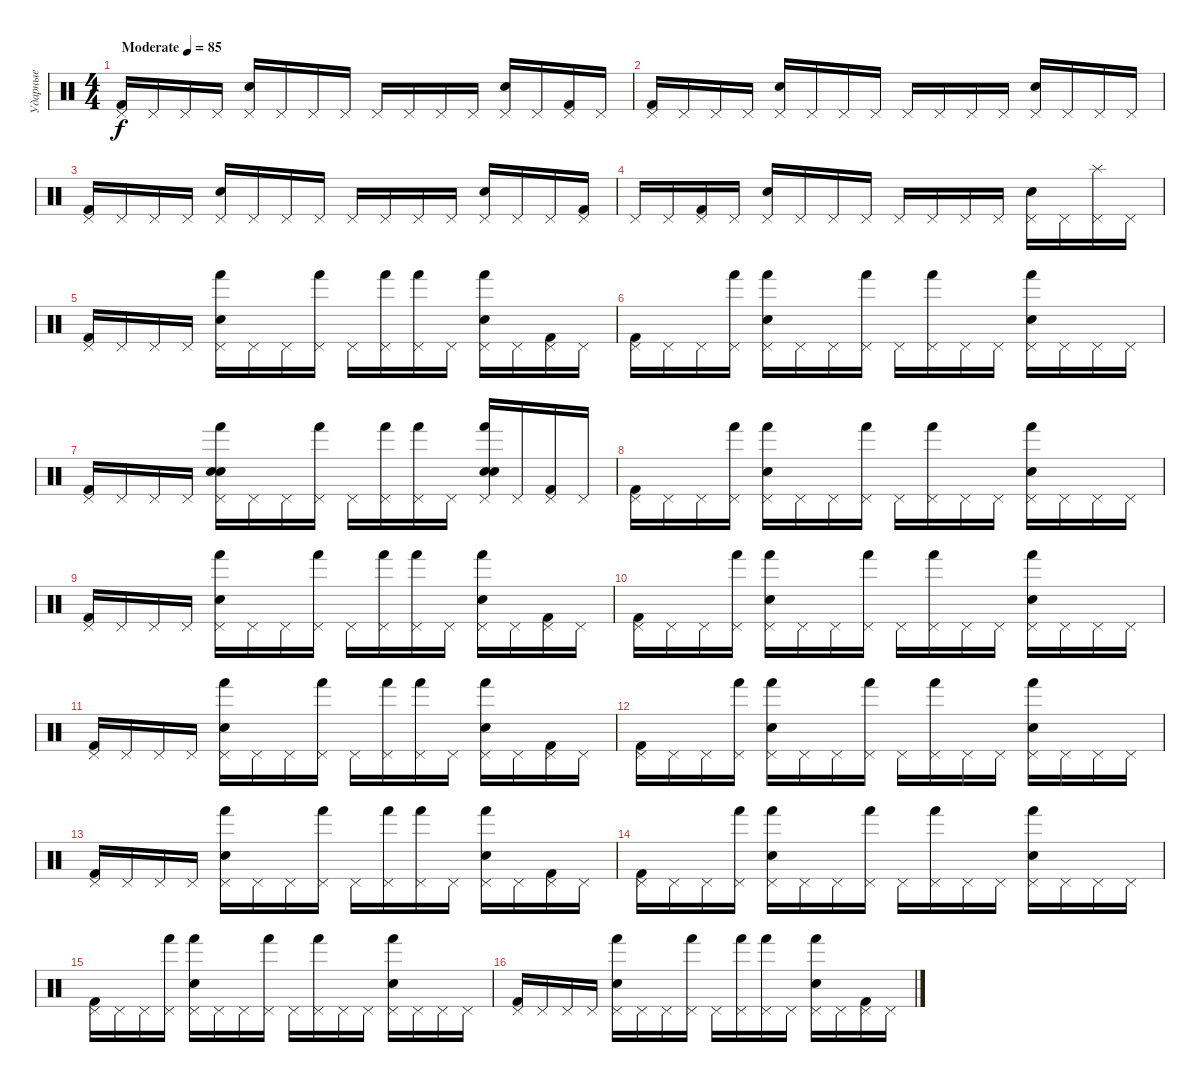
\track ("Ударные" "Ударные") {instrument percussion}
\staff {score}
\articulation defaults
\ts (4 4)
\tempo (85 "Moderate")
\clef neutral
\ks c
("Pedal Hi-Hat (hit)" "Kick (hit) 2").16{dy f} "Pedal Hi-Hat (hit)".16 "Pedal Hi-Hat (hit)".16 "Pedal Hi-Hat (hit)".16 ("Pedal Hi-Hat (hit)" "Electric Snare (hit)").16 "Pedal Hi-Hat (hit)".16 "Pedal Hi-Hat (hit)".16 "Pedal Hi-Hat (hit)".16 "Pedal Hi-Hat (hit)".16 "Pedal Hi-Hat (hit)".16 "Pedal Hi-Hat (hit)".16 "Pedal Hi-Hat (hit)".16 ("Pedal Hi-Hat (hit)" "Electric Snare (hit)").16 "Pedal Hi-Hat (hit)".16 ("Pedal Hi-Hat (hit)" "Kick (hit) 2").16 "Pedal Hi-Hat (hit)".16 |
("Pedal Hi-Hat (hit)" "Kick (hit) 2").16 "Pedal Hi-Hat (hit)".16 "Pedal Hi-Hat (hit)".16 "Pedal Hi-Hat (hit)".16 ("Pedal Hi-Hat (hit)" "Electric Snare (hit)").16 "Pedal Hi-Hat (hit)".16 "Pedal Hi-Hat (hit)".16 "Pedal Hi-Hat (hit)".16 "Pedal Hi-Hat (hit)".16 "Pedal Hi-Hat (hit)".16 "Pedal Hi-Hat (hit)".16 "Pedal Hi-Hat (hit)".16 ("Pedal Hi-Hat (hit)" "Electric Snare (hit)").16 "Pedal Hi-Hat (hit)".16 "Pedal Hi-Hat (hit)".16 "Pedal Hi-Hat (hit)".16 |
("Pedal Hi-Hat (hit)" "Kick (hit) 2").16 "Pedal Hi-Hat (hit)".16 "Pedal Hi-Hat (hit)".16 "Pedal Hi-Hat (hit)".16 ("Pedal Hi-Hat (hit)" "Electric Snare (hit)").16 "Pedal Hi-Hat (hit)".16 "Pedal Hi-Hat (hit)".16 "Pedal Hi-Hat (hit)".16 "Pedal Hi-Hat (hit)".16 "Pedal Hi-Hat (hit)".16 "Pedal Hi-Hat (hit)".16 "Pedal Hi-Hat (hit)".16 ("Pedal Hi-Hat (hit)" "Electric Snare (hit)").16 "Pedal Hi-Hat (hit)".16 "Pedal Hi-Hat (hit)".16 ("Pedal Hi-Hat (hit)" "Kick (hit) 2").16 |
"Pedal Hi-Hat (hit)".16 "Pedal Hi-Hat (hit)".16 ("Pedal Hi-Hat (hit)" "Kick (hit) 2").16 "Pedal Hi-Hat (hit)".16 ("Pedal Hi-Hat (hit)" "Electric Snare (hit)").16 "Pedal Hi-Hat (hit)".16 "Pedal Hi-Hat (hit)".16 "Pedal Hi-Hat (hit)".16 "Pedal Hi-Hat (hit)".16 "Pedal Hi-Hat (hit)".16 "Pedal Hi-Hat (hit)".16 "Pedal Hi-Hat (hit)".16 ("Pedal Hi-Hat (hit)" "Electric Snare (hit)").16 "Pedal Hi-Hat (hit)".16 ("Pedal Hi-Hat (hit)" "Splash (hit)").16 "Pedal Hi-Hat (hit)".16 |
("Pedal Hi-Hat (hit)" "Kick (hit) 2").16 "Pedal Hi-Hat (hit)".16 "Pedal Hi-Hat (hit)".16 "Pedal Hi-Hat (hit)".16 ("Pedal Hi-Hat (hit)" "Electric Snare (hit)" "Hand (hit)").16 "Pedal Hi-Hat (hit)".16 "Pedal Hi-Hat (hit)".16 ("Pedal Hi-Hat (hit)" "Hand (hit)").16 "Pedal Hi-Hat (hit)".16 ("Pedal Hi-Hat (hit)" "Hand (hit)").16 ("Pedal Hi-Hat (hit)" "Hand (hit)").16 "Pedal Hi-Hat (hit)".16 ("Pedal Hi-Hat (hit)" "Electric Snare (hit)" "Hand (hit)").16 "Pedal Hi-Hat (hit)".16 ("Pedal Hi-Hat (hit)" "Kick (hit) 2").16 "Pedal Hi-Hat (hit)".16 |
("Pedal Hi-Hat (hit)" "Kick (hit) 2").16 "Pedal Hi-Hat (hit)".16 "Pedal Hi-Hat (hit)".16 ("Pedal Hi-Hat (hit)" "Hand (hit)").16 ("Pedal Hi-Hat (hit)" "Electric Snare (hit)" "Hand (hit)").16 "Pedal Hi-Hat (hit)".16 "Pedal Hi-Hat (hit)".16 ("Pedal Hi-Hat (hit)" "Hand (hit)").16 "Pedal Hi-Hat (hit)".16 ("Pedal Hi-Hat (hit)" "Hand (hit)").16 "Pedal Hi-Hat (hit)".16 "Pedal Hi-Hat (hit)".16 ("Pedal Hi-Hat (hit)" "Electric Snare (hit)" "Hand (hit)").16 "Pedal Hi-Hat (hit)".16 "Pedal Hi-Hat (hit)".16 "Pedal Hi-Hat (hit)".16 |
("Pedal Hi-Hat (hit)" "Kick (hit) 2").16 "Pedal Hi-Hat (hit)".16 "Pedal Hi-Hat (hit)".16 "Pedal Hi-Hat (hit)".16 ("Pedal Hi-Hat (hit)" "Hand Clap (hit)" "Electric Snare (hit)" "Hand (hit)").16 "Pedal Hi-Hat (hit)".16 "Pedal Hi-Hat (hit)".16 ("Pedal Hi-Hat (hit)" "Hand (hit)").16 "Pedal Hi-Hat (hit)".16 ("Pedal Hi-Hat (hit)" "Hand (hit)").16 ("Pedal Hi-Hat (hit)" "Hand (hit)").16 "Pedal Hi-Hat (hit)".16 ("Pedal Hi-Hat (hit)" "Hand Clap (hit)" "Electric Snare (hit)" "Hand (hit)").16 "Pedal Hi-Hat (hit)".16 ("Pedal Hi-Hat (hit)" "Kick (hit) 2").16 "Pedal Hi-Hat (hit)".16 |
("Pedal Hi-Hat (hit)" "Kick (hit) 2").16 "Pedal Hi-Hat (hit)".16 "Pedal Hi-Hat (hit)".16 ("Pedal Hi-Hat (hit)" "Hand (hit)").16 ("Pedal Hi-Hat (hit)" "Electric Snare (hit)" "Hand (hit)").16 "Pedal Hi-Hat (hit)".16 "Pedal Hi-Hat (hit)".16 ("Pedal Hi-Hat (hit)" "Hand (hit)").16 "Pedal Hi-Hat (hit)".16 ("Pedal Hi-Hat (hit)" "Hand (hit)").16 "Pedal Hi-Hat (hit)".16 "Pedal Hi-Hat (hit)".16 ("Pedal Hi-Hat (hit)" "Electric Snare (hit)" "Hand (hit)").16 "Pedal Hi-Hat (hit)".16 "Pedal Hi-Hat (hit)".16 "Pedal Hi-Hat (hit)".16 |
("Pedal Hi-Hat (hit)" "Kick (hit) 2").16 "Pedal Hi-Hat (hit)".16 "Pedal Hi-Hat (hit)".16 "Pedal Hi-Hat (hit)".16 ("Pedal Hi-Hat (hit)" "Electric Snare (hit)" "Hand (hit)").16 "Pedal Hi-Hat (hit)".16 "Pedal Hi-Hat (hit)".16 ("Pedal Hi-Hat (hit)" "Hand (hit)").16 "Pedal Hi-Hat (hit)".16 ("Pedal Hi-Hat (hit)" "Hand (hit)").16 ("Pedal Hi-Hat (hit)" "Hand (hit)").16 "Pedal Hi-Hat (hit)".16 ("Pedal Hi-Hat (hit)" "Electric Snare (hit)" "Hand (hit)").16 "Pedal Hi-Hat (hit)".16 ("Pedal Hi-Hat (hit)" "Kick (hit) 2").16 "Pedal Hi-Hat (hit)".16 |
("Pedal Hi-Hat (hit)" "Kick (hit) 2").16 "Pedal Hi-Hat (hit)".16 "Pedal Hi-Hat (hit)".16 ("Pedal Hi-Hat (hit)" "Hand (hit)").16 ("Pedal Hi-Hat (hit)" "Electric Snare (hit)" "Hand (hit)").16 "Pedal Hi-Hat (hit)".16 "Pedal Hi-Hat (hit)".16 ("Pedal Hi-Hat (hit)" "Hand (hit)").16 "Pedal Hi-Hat (hit)".16 ("Pedal Hi-Hat (hit)" "Hand (hit)").16 "Pedal Hi-Hat (hit)".16 "Pedal Hi-Hat (hit)".16 ("Pedal Hi-Hat (hit)" "Electric Snare (hit)" "Hand (hit)").16 "Pedal Hi-Hat (hit)".16 "Pedal Hi-Hat (hit)".16 "Pedal Hi-Hat (hit)".16 |
("Pedal Hi-Hat (hit)" "Kick (hit) 2").16 "Pedal Hi-Hat (hit)".16 "Pedal Hi-Hat (hit)".16 "Pedal Hi-Hat (hit)".16 ("Pedal Hi-Hat (hit)" "Electric Snare (hit)" "Hand (hit)").16 "Pedal Hi-Hat (hit)".16 "Pedal Hi-Hat (hit)".16 ("Pedal Hi-Hat (hit)" "Hand (hit)").16 "Pedal Hi-Hat (hit)".16 ("Pedal Hi-Hat (hit)" "Hand (hit)").16 ("Pedal Hi-Hat (hit)" "Hand (hit)").16 "Pedal Hi-Hat (hit)".16 ("Pedal Hi-Hat (hit)" "Electric Snare (hit)" "Hand (hit)").16 "Pedal Hi-Hat (hit)".16 ("Pedal Hi-Hat (hit)" "Kick (hit) 2").16 "Pedal Hi-Hat (hit)".16 |
("Pedal Hi-Hat (hit)" "Kick (hit) 2").16 "Pedal Hi-Hat (hit)".16 "Pedal Hi-Hat (hit)".16 ("Pedal Hi-Hat (hit)" "Hand (hit)").16 ("Pedal Hi-Hat (hit)" "Electric Snare (hit)" "Hand (hit)").16 "Pedal Hi-Hat (hit)".16 "Pedal Hi-Hat (hit)".16 ("Pedal Hi-Hat (hit)" "Hand (hit)").16 "Pedal Hi-Hat (hit)".16 ("Pedal Hi-Hat (hit)" "Hand (hit)").16 "Pedal Hi-Hat (hit)".16 "Pedal Hi-Hat (hit)".16 ("Pedal Hi-Hat (hit)" "Electric Snare (hit)" "Hand (hit)").16 "Pedal Hi-Hat (hit)".16 "Pedal Hi-Hat (hit)".16 "Pedal Hi-Hat (hit)".16 |
("Pedal Hi-Hat (hit)" "Kick (hit) 2").16 "Pedal Hi-Hat (hit)".16 "Pedal Hi-Hat (hit)".16 "Pedal Hi-Hat (hit)".16 ("Pedal Hi-Hat (hit)" "Electric Snare (hit)" "Hand (hit)").16 "Pedal Hi-Hat (hit)".16 "Pedal Hi-Hat (hit)".16 ("Pedal Hi-Hat (hit)" "Hand (hit)").16 "Pedal Hi-Hat (hit)".16 ("Pedal Hi-Hat (hit)" "Hand (hit)").16 ("Pedal Hi-Hat (hit)" "Hand (hit)").16 "Pedal Hi-Hat (hit)".16 ("Pedal Hi-Hat (hit)" "Electric Snare (hit)" "Hand (hit)").16 "Pedal Hi-Hat (hit)".16 ("Pedal Hi-Hat (hit)" "Kick (hit) 2").16 "Pedal Hi-Hat (hit)".16 |
("Pedal Hi-Hat (hit)" "Kick (hit) 2").16 "Pedal Hi-Hat (hit)".16 "Pedal Hi-Hat (hit)".16 ("Pedal Hi-Hat (hit)" "Hand (hit)").16 ("Pedal Hi-Hat (hit)" "Electric Snare (hit)" "Hand (hit)").16 "Pedal Hi-Hat (hit)".16 "Pedal Hi-Hat (hit)".16 ("Pedal Hi-Hat (hit)" "Hand (hit)").16 "Pedal Hi-Hat (hit)".16 ("Pedal Hi-Hat (hit)" "Hand (hit)").16 "Pedal Hi-Hat (hit)".16 "Pedal Hi-Hat (hit)".16 ("Pedal Hi-Hat (hit)" "Electric Snare (hit)" "Hand (hit)").16 "Pedal Hi-Hat (hit)".16 "Pedal Hi-Hat (hit)".16 "Pedal Hi-Hat (hit)".16 |
("Pedal Hi-Hat (hit)" "Kick (hit) 2").16 "Pedal Hi-Hat (hit)".16 "Pedal Hi-Hat (hit)".16 ("Pedal Hi-Hat (hit)" "Hand (hit)").16 ("Pedal Hi-Hat (hit)" "Electric Snare (hit)" "Hand (hit)").16 "Pedal Hi-Hat (hit)".16 "Pedal Hi-Hat (hit)".16 ("Pedal Hi-Hat (hit)" "Hand (hit)").16 "Pedal Hi-Hat (hit)".16 ("Pedal Hi-Hat (hit)" "Hand (hit)").16 "Pedal Hi-Hat (hit)".16 "Pedal Hi-Hat (hit)".16 ("Pedal Hi-Hat (hit)" "Electric Snare (hit)" "Hand (hit)").16 "Pedal Hi-Hat (hit)".16 "Pedal Hi-Hat (hit)".16 "Pedal Hi-Hat (hit)".16 |
("Pedal Hi-Hat (hit)" "Kick (hit) 2").16 "Pedal Hi-Hat (hit)".16 "Pedal Hi-Hat (hit)".16 "Pedal Hi-Hat (hit)".16 ("Pedal Hi-Hat (hit)" "Electric Snare (hit)" "Hand (hit)").16 "Pedal Hi-Hat (hit)".16 "Pedal Hi-Hat (hit)".16 ("Pedal Hi-Hat (hit)" "Hand (hit)").16 "Pedal Hi-Hat (hit)".16 ("Pedal Hi-Hat (hit)" "Hand (hit)").16 ("Pedal Hi-Hat (hit)" "Hand (hit)").16 "Pedal Hi-Hat (hit)".16 ("Pedal Hi-Hat (hit)" "Electric Snare (hit)" "Hand (hit)").16 "Pedal Hi-Hat (hit)".16 ("Pedal Hi-Hat (hit)" "Kick (hit) 2").16 "Pedal Hi-Hat (hit)".16
